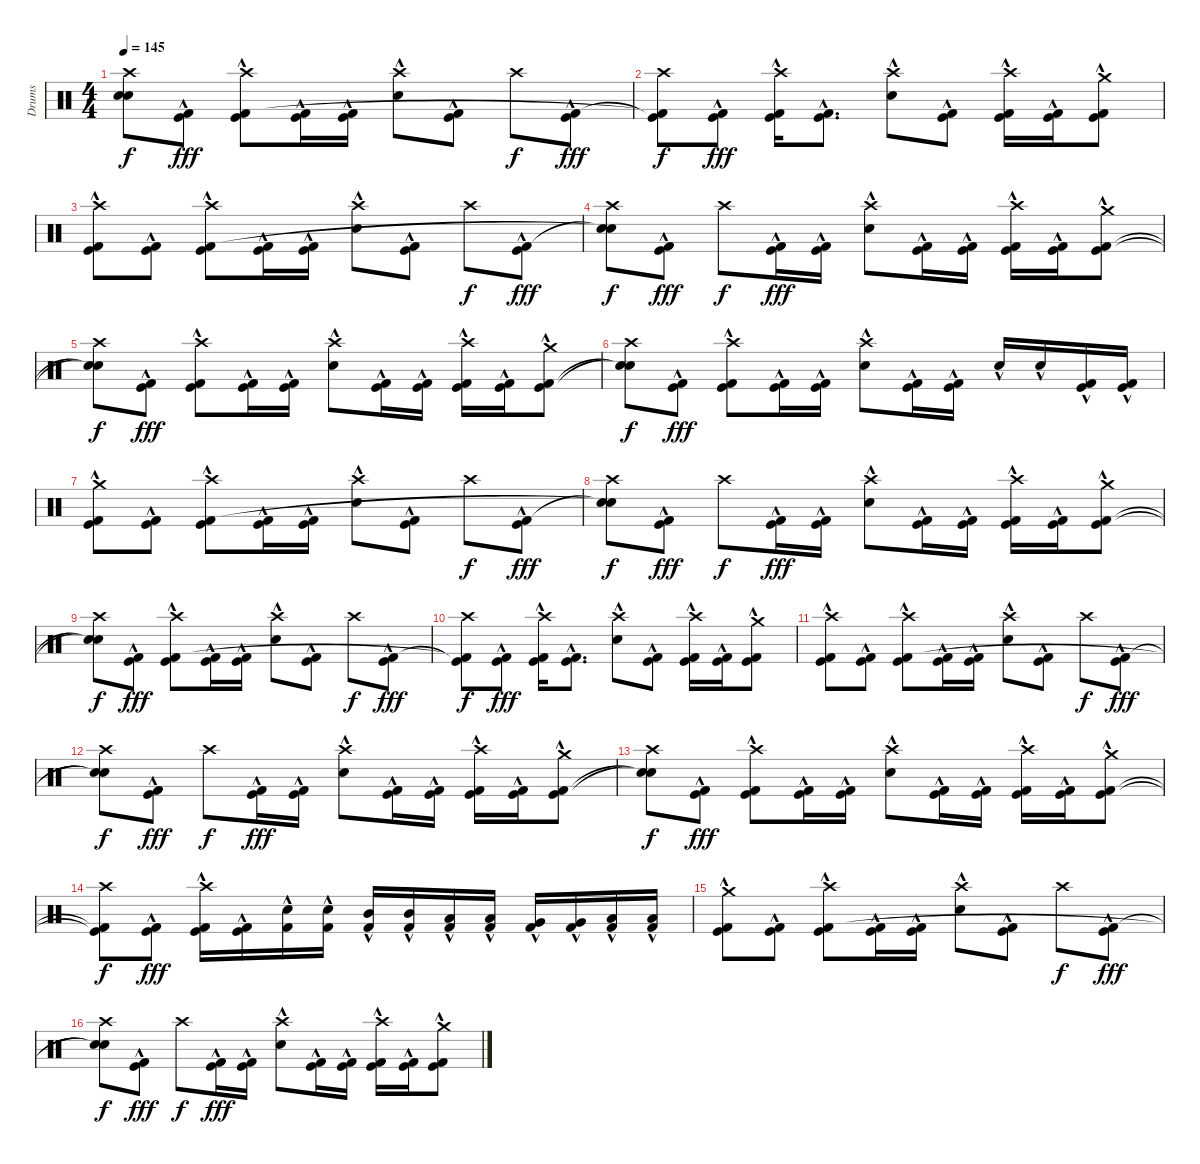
\track ("Drums" "Drums") {instrument percussion}
\staff {score}
\articulation defaults
\ts (4 4)
\tempo 145
\clef neutral
\ks c
("Crash high (hit)" "Snare (hit)"{t} "Snare (hit)"{t}).8{dy f} ("Kick (hit)"{hac} "Kick (hit) 2"{hac}).8{dy fff} ("Crash high (hit)" "Kick (hit)"{hac} "Kick (hit) 2"{hac}).8 ("Kick (hit)"{hac} "Kick (hit) 2"{hac}).16 ("Kick (hit)"{hac} "Kick (hit) 2"{hac}).16 ("Crash high (hit)" "Electric Snare (hit)"{hac}).8 ("Kick (hit)"{hac} "Kick (hit) 2"{hac}).8 "Crash high (hit)".8{dy f} ("Kick (hit)"{hac} "Kick (hit) 2"{hac}).8{dy fff} |
("Crash high (hit)" "Kick (hit)"{t} "Kick (hit) 2"{t}).8{dy f} ("Kick (hit)"{hac} "Kick (hit) 2"{hac}).8{dy fff} ("Crash high (hit)" "Kick (hit)"{hac} "Kick (hit) 2"{hac}).16 ("Kick (hit)"{hac} "Kick (hit) 2"{hac}).8{d} ("Crash high (hit)" "Electric Snare (hit)"{hac}).8 ("Kick (hit)"{hac} "Kick (hit) 2"{hac}).8 ("Crash high (hit)" "Kick (hit)"{hac} "Kick (hit) 2"{hac}).16 ("Kick (hit)"{hac} "Kick (hit) 2"{hac}).16 ("Crash medium (hit)" "Kick (hit)"{hac} "Kick (hit) 2"{hac}).8 |
("Crash high (hit)" "Kick (hit)"{hac} "Kick (hit) 2"{hac}).8 ("Kick (hit)"{hac} "Kick (hit) 2"{hac}).8 ("Crash high (hit)" "Kick (hit)"{hac} "Kick (hit) 2"{hac}).8 ("Kick (hit)"{hac} "Kick (hit) 2"{hac}).16 ("Kick (hit)"{hac} "Kick (hit) 2"{hac}).16 ("Crash high (hit)" "Electric Snare (hit)"{hac}).8 ("Kick (hit)"{hac} "Kick (hit) 2"{hac}).8 "Crash high (hit)".8{dy f} ("Kick (hit)"{hac} "Kick (hit) 2"{hac}).8{dy fff} |
("Crash high (hit)" "Snare (hit)"{t} "Snare (hit)"{t}).8{dy f} ("Kick (hit)"{hac} "Kick (hit) 2"{hac}).8{dy fff} "Crash high (hit)".8{dy f} ("Kick (hit)"{hac} "Kick (hit) 2"{hac}).16{dy fff} ("Kick (hit)"{hac} "Kick (hit) 2"{hac}).16 ("Crash high (hit)" "Electric Snare (hit)"{hac}).8 ("Kick (hit)"{hac} "Kick (hit) 2"{hac}).16 ("Kick (hit)"{hac} "Kick (hit) 2"{hac}).16 ("Crash high (hit)" "Kick (hit)"{hac} "Kick (hit) 2"{hac}).16 ("Kick (hit)"{hac} "Kick (hit) 2"{hac}).16 ("Crash medium (hit)" "Kick (hit)"{hac} "Kick (hit) 2"{hac}).8 |
("Crash high (hit)" "Snare (hit)"{t} "Snare (hit)"{t}).8{dy f} ("Kick (hit)"{hac} "Kick (hit) 2"{hac}).8{dy fff} ("Crash high (hit)" "Kick (hit)"{hac} "Kick (hit) 2"{hac}).8 ("Kick (hit)"{hac} "Kick (hit) 2"{hac}).16 ("Kick (hit)"{hac} "Kick (hit) 2"{hac}).16 ("Crash high (hit)" "Electric Snare (hit)"{hac}).8 ("Kick (hit)"{hac} "Kick (hit) 2"{hac}).16 ("Kick (hit)"{hac} "Kick (hit) 2"{hac}).16 ("Crash high (hit)" "Kick (hit)"{hac} "Kick (hit) 2"{hac}).16 ("Kick (hit)"{hac} "Kick (hit) 2"{hac}).16 ("Crash medium (hit)" "Kick (hit)"{hac} "Kick (hit) 2"{hac}).8 |
("Crash high (hit)" "Snare (hit)"{t} "Snare (hit)"{t}).8{dy f} ("Kick (hit)"{hac} "Kick (hit) 2"{hac}).8{dy fff} ("Crash high (hit)" "Kick (hit)"{hac} "Kick (hit) 2"{hac}).8 ("Kick (hit)"{hac} "Kick (hit) 2"{hac}).16 ("Kick (hit)"{hac} "Kick (hit) 2"{hac}).16 ("Crash high (hit)" "Electric Snare (hit)"{hac}).8 ("Kick (hit)"{hac} "Kick (hit) 2"{hac}).16 ("Kick (hit)"{hac} "Kick (hit) 2"{hac}).16 "Electric Snare (hit)"{hac}.16 "Electric Snare (hit)"{hac}.16 ("Kick (hit)"{hac} "Kick (hit) 2"{hac}).16 ("Kick (hit)"{hac} "Kick (hit) 2"{hac}).16 |
("Crash medium (hit)" "Kick (hit)"{hac} "Kick (hit) 2"{hac}).8 ("Kick (hit)"{hac} "Kick (hit) 2"{hac}).8 ("Crash high (hit)" "Kick (hit)"{hac} "Kick (hit) 2"{hac}).8 ("Kick (hit)"{hac} "Kick (hit) 2"{hac}).16 ("Kick (hit)"{hac} "Kick (hit) 2"{hac}).16 ("Crash high (hit)" "Electric Snare (hit)"{hac}).8 ("Kick (hit)"{hac} "Kick (hit) 2"{hac}).8 "Crash high (hit)".8{dy f} ("Kick (hit)"{hac} "Kick (hit) 2"{hac}).8{dy fff} |
("Crash high (hit)" "Snare (hit)"{t} "Snare (hit)"{t}).8{dy f} ("Kick (hit)"{hac} "Kick (hit) 2"{hac}).8{dy fff} "Crash high (hit)".8{dy f} ("Kick (hit)"{hac} "Kick (hit) 2"{hac}).16{dy fff} ("Kick (hit)"{hac} "Kick (hit) 2"{hac}).16 ("Crash high (hit)" "Electric Snare (hit)"{hac}).8 ("Kick (hit)"{hac} "Kick (hit) 2"{hac}).16 ("Kick (hit)"{hac} "Kick (hit) 2"{hac}).16 ("Crash high (hit)" "Kick (hit)"{hac} "Kick (hit) 2"{hac}).16 ("Kick (hit)"{hac} "Kick (hit) 2"{hac}).16 ("Crash medium (hit)" "Kick (hit)"{hac} "Kick (hit) 2"{hac}).8 |
("Crash high (hit)" "Snare (hit)"{t} "Snare (hit)"{t}).8{dy f} ("Kick (hit)"{hac} "Kick (hit) 2"{hac}).8{dy fff} ("Crash high (hit)" "Kick (hit)"{hac} "Kick (hit) 2"{hac}).8 ("Kick (hit)"{hac} "Kick (hit) 2"{hac}).16 ("Kick (hit)"{hac} "Kick (hit) 2"{hac}).16 ("Crash high (hit)" "Electric Snare (hit)"{hac}).8 ("Kick (hit)"{hac} "Kick (hit) 2"{hac}).8 "Crash high (hit)".8{dy f} ("Kick (hit)"{hac} "Kick (hit) 2"{hac}).8{dy fff} |
("Crash high (hit)" "Kick (hit)"{t} "Kick (hit) 2"{t}).8{dy f} ("Kick (hit)"{hac} "Kick (hit) 2"{hac}).8{dy fff} ("Crash high (hit)" "Kick (hit)"{hac} "Kick (hit) 2"{hac}).16 ("Kick (hit)"{hac} "Kick (hit) 2"{hac}).8{d} ("Crash high (hit)" "Electric Snare (hit)"{hac}).8 ("Kick (hit)"{hac} "Kick (hit) 2"{hac}).8 ("Crash high (hit)" "Kick (hit)"{hac} "Kick (hit) 2"{hac}).16 ("Kick (hit)"{hac} "Kick (hit) 2"{hac}).16 ("Crash medium (hit)" "Kick (hit)"{hac} "Kick (hit) 2"{hac}).8 |
("Crash high (hit)" "Kick (hit)"{hac} "Kick (hit) 2"{hac}).8 ("Kick (hit)"{hac} "Kick (hit) 2"{hac}).8 ("Crash high (hit)" "Kick (hit)"{hac} "Kick (hit) 2"{hac}).8 ("Kick (hit)"{hac} "Kick (hit) 2"{hac}).16 ("Kick (hit)"{hac} "Kick (hit) 2"{hac}).16 ("Crash high (hit)" "Electric Snare (hit)"{hac}).8 ("Kick (hit)"{hac} "Kick (hit) 2"{hac}).8 "Crash high (hit)".8{dy f} ("Kick (hit)"{hac} "Kick (hit) 2"{hac}).8{dy fff} |
("Crash high (hit)" "Snare (hit)"{t} "Snare (hit)"{t}).8{dy f} ("Kick (hit)"{hac} "Kick (hit) 2"{hac}).8{dy fff} "Crash high (hit)".8{dy f} ("Kick (hit)"{hac} "Kick (hit) 2"{hac}).16{dy fff} ("Kick (hit)"{hac} "Kick (hit) 2"{hac}).16 ("Crash high (hit)" "Electric Snare (hit)"{hac}).8 ("Kick (hit)"{hac} "Kick (hit) 2"{hac}).16 ("Kick (hit)"{hac} "Kick (hit) 2"{hac}).16 ("Crash high (hit)" "Kick (hit)"{hac} "Kick (hit) 2"{hac}).16 ("Kick (hit)"{hac} "Kick (hit) 2"{hac}).16 ("Crash medium (hit)" "Kick (hit)"{hac} "Kick (hit) 2"{hac}).8 |
("Crash high (hit)" "Snare (hit)"{t} "Snare (hit)"{t}).8{dy f} ("Kick (hit)"{hac} "Kick (hit) 2"{hac}).8{dy fff} ("Crash high (hit)" "Kick (hit)"{hac} "Kick (hit) 2"{hac}).8 ("Kick (hit)"{hac} "Kick (hit) 2"{hac}).16 ("Kick (hit)"{hac} "Kick (hit) 2"{hac}).16 ("Crash high (hit)" "Electric Snare (hit)"{hac}).8 ("Kick (hit)"{hac} "Kick (hit) 2"{hac}).16 ("Kick (hit)"{hac} "Kick (hit) 2"{hac}).16 ("Crash high (hit)" "Kick (hit)"{hac} "Kick (hit) 2"{hac}).16 ("Kick (hit)"{hac} "Kick (hit) 2"{hac}).16 ("Crash medium (hit)" "Kick (hit)"{hac} "Kick (hit) 2"{hac}).8 |
("Crash high (hit)" "Kick (hit)"{t} "Kick (hit) 2"{t}).8{dy f} ("Kick (hit)"{hac} "Kick (hit) 2"{hac}).8{dy fff} ("Crash high (hit)" "Kick (hit)"{hac} "Kick (hit) 2"{hac}).16 ("Kick (hit)"{hac} "Kick (hit) 2"{hac}).16 ("Electric Snare (hit)"{hac} "Kick (hit) 2").16 ("Electric Snare (hit)"{hac} "Kick (hit) 2").16 ("Mid Tom (hit)"{hac} "Kick (hit) 2").16 ("Mid Tom (hit)"{hac} "Kick (hit) 2").16 ("Low Tom (hit)"{hac} "Kick (hit) 2").16 ("Low Tom (hit)"{hac} "Kick (hit) 2").16 ("Very Low Tom (hit)"{hac} "Kick (hit) 2").16 ("Very Low Tom (hit)"{hac} "Kick (hit) 2").16 ("Low Floor Tom (hit)"{hac} "Kick (hit) 2").16 ("Low Floor Tom (hit)"{hac} "Kick (hit) 2").16 |
("Crash medium (hit)" "Kick (hit)"{hac} "Kick (hit) 2"{hac}).8 ("Kick (hit)"{hac} "Kick (hit) 2"{hac}).8 ("Crash high (hit)" "Kick (hit)"{hac} "Kick (hit) 2"{hac}).8 ("Kick (hit)"{hac} "Kick (hit) 2"{hac}).16 ("Kick (hit)"{hac} "Kick (hit) 2"{hac}).16 ("Crash high (hit)" "Electric Snare (hit)"{hac}).8 ("Kick (hit)"{hac} "Kick (hit) 2"{hac}).8 "Crash high (hit)".8{dy f} ("Kick (hit)"{hac} "Kick (hit) 2"{hac}).8{dy fff} |
("Crash high (hit)" "Snare (hit)"{t} "Snare (hit)"{t}).8{dy f} ("Kick (hit)"{hac} "Kick (hit) 2"{hac}).8{dy fff} "Crash high (hit)".8{dy f} ("Kick (hit)"{hac} "Kick (hit) 2"{hac}).16{dy fff} ("Kick (hit)"{hac} "Kick (hit) 2"{hac}).16 ("Crash high (hit)" "Electric Snare (hit)"{hac}).8 ("Kick (hit)"{hac} "Kick (hit) 2"{hac}).16 ("Kick (hit)"{hac} "Kick (hit) 2"{hac}).16 ("Crash high (hit)" "Kick (hit)"{hac} "Kick (hit) 2"{hac}).16 ("Kick (hit)"{hac} "Kick (hit) 2"{hac}).16 ("Crash medium (hit)" "Kick (hit)"{hac} "Kick (hit) 2"{hac}).8
